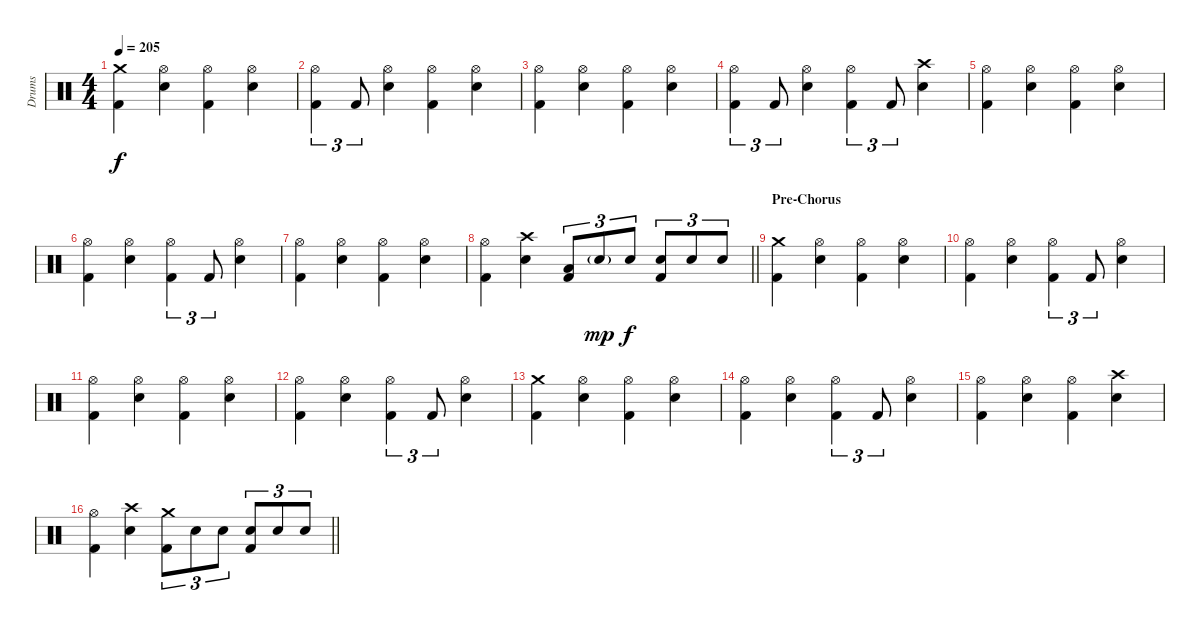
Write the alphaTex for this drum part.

\track ("Drums" "Drums") {instrument percussion}
\staff {score}
\articulation defaults
\ts (4 4)
\tempo 205
\clef neutral
\ks c
("Crash medium (hit)" "Kick (hit) 2").4{dy f} ("Hi-Hat (open)" "Electric Snare (hit)").4 ("Hi-Hat (open)" "Kick (hit) 2").4 ("Hi-Hat (open)" "Electric Snare (hit)").4 |
("Hi-Hat (open)" "Kick (hit) 2").4{tu (3 2)} "Kick (hit) 2".8{tu (3 2)} ("Hi-Hat (open)" "Electric Snare (hit)").4 ("Hi-Hat (open)" "Kick (hit) 2").4 ("Hi-Hat (open)" "Electric Snare (hit)").4 |
("Hi-Hat (open)" "Kick (hit) 2").4 ("Hi-Hat (open)" "Electric Snare (hit)").4 ("Hi-Hat (open)" "Kick (hit) 2").4 ("Hi-Hat (open)" "Electric Snare (hit)").4 |
("Hi-Hat (open)" "Kick (hit) 2").4{tu (3 2)} "Kick (hit) 2".8{tu (3 2)} ("Hi-Hat (open)" "Electric Snare (hit)").4 ("Hi-Hat (open)" "Kick (hit) 2").4{tu (3 2)} "Kick (hit) 2".8{tu (3 2)} ("Crash high (hit)" "Electric Snare (hit)").4 |
("Hi-Hat (open)" "Kick (hit) 2").4 ("Hi-Hat (open)" "Electric Snare (hit)").4 ("Hi-Hat (open)" "Kick (hit) 2").4 ("Hi-Hat (open)" "Electric Snare (hit)").4 |
("Hi-Hat (open)" "Kick (hit) 2").4 ("Hi-Hat (open)" "Electric Snare (hit)").4 ("Hi-Hat (open)" "Kick (hit) 2").4{tu (3 2)} "Kick (hit) 2".8{tu (3 2)} ("Hi-Hat (open)" "Electric Snare (hit)").4 |
("Hi-Hat (open)" "Kick (hit) 2").4 ("Hi-Hat (open)" "Electric Snare (hit)").4 ("Hi-Hat (open)" "Kick (hit) 2").4 ("Hi-Hat (open)" "Electric Snare (hit)").4 |
\barLineRight lightlight
("Hi-Hat (open)" "Kick (hit) 2").4 ("Crash high (hit)" "Electric Snare (hit)").4 ("Low Tom (hit)" "Kick (hit) 2").8{tu (3 2)} "Electric Snare (hit)"{g}.8{tu (3 2) dy mp} "Electric Snare (hit)".8{tu (3 2) dy f} ("Electric Snare (hit)" "Kick (hit) 2").8{tu (3 2)} "Electric Snare (hit)".8{tu (3 2)} "Electric Snare (hit)".8{tu (3 2)} |
\section ("" "Pre-Chorus")
("Crash medium (hit)" "Kick (hit) 2").4 ("Hi-Hat (open)" "Electric Snare (hit)").4 ("Hi-Hat (open)" "Kick (hit) 2").4 ("Hi-Hat (open)" "Electric Snare (hit)").4 |
("Hi-Hat (open)" "Kick (hit) 2").4 ("Hi-Hat (open)" "Electric Snare (hit)").4 ("Hi-Hat (open)" "Kick (hit) 2").4{tu (3 2)} "Kick (hit) 2".8{tu (3 2)} ("Hi-Hat (open)" "Electric Snare (hit)").4 |
("Hi-Hat (open)" "Kick (hit) 2").4 ("Hi-Hat (open)" "Electric Snare (hit)").4 ("Hi-Hat (open)" "Kick (hit) 2").4 ("Hi-Hat (open)" "Electric Snare (hit)").4 |
("Hi-Hat (open)" "Kick (hit) 2").4 ("Hi-Hat (open)" "Electric Snare (hit)").4 ("Hi-Hat (open)" "Kick (hit) 2").4{tu (3 2)} "Kick (hit) 2".8{tu (3 2)} ("Hi-Hat (open)" "Electric Snare (hit)").4 |
("Crash medium (hit)" "Kick (hit) 2").4 ("Hi-Hat (open)" "Electric Snare (hit)").4 ("Hi-Hat (open)" "Kick (hit) 2").4 ("Hi-Hat (open)" "Electric Snare (hit)").4 |
("Hi-Hat (open)" "Kick (hit) 2").4 ("Hi-Hat (open)" "Electric Snare (hit)").4 ("Hi-Hat (open)" "Kick (hit) 2").4{tu (3 2)} "Kick (hit) 2".8{tu (3 2)} ("Hi-Hat (open)" "Electric Snare (hit)").4 |
("Hi-Hat (open)" "Kick (hit) 2").4 ("Hi-Hat (open)" "Electric Snare (hit)").4 ("Hi-Hat (open)" "Kick (hit) 2").4 ("Crash high (hit)" "Electric Snare (hit)").4 |
\barLineRight lightlight
("Hi-Hat (open)" "Kick (hit) 2").4 ("Crash high (hit)" "Electric Snare (hit)").4 ("Crash medium (hit)" "Kick (hit) 2").8{tu (3 2)} "Electric Snare (hit)".8{tu (3 2)} "Electric Snare (hit)".8{tu (3 2)} ("Electric Snare (hit)" "Kick (hit) 2").8{tu (3 2)} "Electric Snare (hit)".8{tu (3 2)} "Electric Snare (hit)".8{tu (3 2)}
